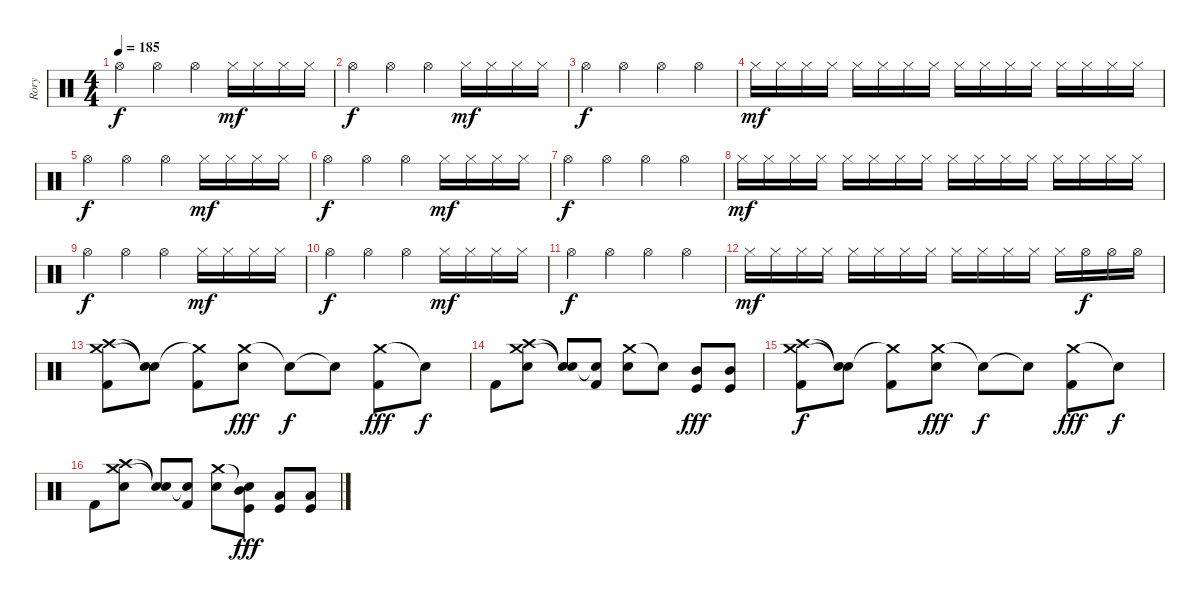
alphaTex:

\track ("Rory" "Rory") {instrument percussion}
\staff {score}
\articulation defaults
\ts (4 4)
\tempo 185
\clef neutral
\ks c "Hi-Hat (open)".4{dy f} "Hi-Hat (open)".4 "Hi-Hat (open)".4 "Hi-Hat (closed)".16{dy mf} "Hi-Hat (closed)".16 "Hi-Hat (closed)".16 "Hi-Hat (closed)".16
|
"Hi-Hat (open)".4{dy f} "Hi-Hat (open)".4 "Hi-Hat (open)".4 "Hi-Hat (closed)".16{dy mf} "Hi-Hat (closed)".16 "Hi-Hat (closed)".16 "Hi-Hat (closed)".16 |
"Hi-Hat (open)".4{dy f} "Hi-Hat (open)".4 "Hi-Hat (open)".4 "Hi-Hat (open)".4 |
"Hi-Hat (closed)".16{dy mf} "Hi-Hat (closed)".16 "Hi-Hat (closed)".16 "Hi-Hat (closed)".16 "Hi-Hat (closed)".16 "Hi-Hat (closed)".16 "Hi-Hat (closed)".16 "Hi-Hat (closed)".16 "Hi-Hat (closed)".16 "Hi-Hat (closed)".16 "Hi-Hat (closed)".16 "Hi-Hat (closed)".16 "Hi-Hat (closed)".16 "Hi-Hat (closed)".16 "Hi-Hat (closed)".16 "Hi-Hat (closed)".16 |
"Hi-Hat (open)".4{dy f} "Hi-Hat (open)".4 "Hi-Hat (open)".4 "Hi-Hat (closed)".16{dy mf} "Hi-Hat (closed)".16 "Hi-Hat (closed)".16 "Hi-Hat (closed)".16 |
"Hi-Hat (open)".4{dy f} "Hi-Hat (open)".4 "Hi-Hat (open)".4 "Hi-Hat (closed)".16{dy mf} "Hi-Hat (closed)".16 "Hi-Hat (closed)".16 "Hi-Hat (closed)".16 |
"Hi-Hat (open)".4{dy f} "Hi-Hat (open)".4 "Hi-Hat (open)".4 "Hi-Hat (open)".4 |
"Hi-Hat (closed)".16{dy mf} "Hi-Hat (closed)".16 "Hi-Hat (closed)".16 "Hi-Hat (closed)".16 "Hi-Hat (closed)".16 "Hi-Hat (closed)".16 "Hi-Hat (closed)".16 "Hi-Hat (closed)".16 "Hi-Hat (closed)".16 "Hi-Hat (closed)".16 "Hi-Hat (closed)".16 "Hi-Hat (closed)".16 "Hi-Hat (closed)".16 "Hi-Hat (closed)".16 "Hi-Hat (closed)".16 "Hi-Hat (closed)".16 |
"Hi-Hat (open)".4{dy f} "Hi-Hat (open)".4 "Hi-Hat (open)".4 "Hi-Hat (closed)".16{dy mf} "Hi-Hat (closed)".16 "Hi-Hat (closed)".16 "Hi-Hat (closed)".16 |
"Hi-Hat (open)".4{dy f} "Hi-Hat (open)".4 "Hi-Hat (open)".4 "Hi-Hat (closed)".16{dy mf} "Hi-Hat (closed)".16 "Hi-Hat (closed)".16 "Hi-Hat (closed)".16 |
"Hi-Hat (open)".4{dy f} "Hi-Hat (open)".4 "Hi-Hat (open)".4 "Hi-Hat (open)".4 |
"Hi-Hat (closed)".16{dy mf} "Hi-Hat (closed)".16 "Hi-Hat (closed)".16 "Hi-Hat (closed)".16 "Hi-Hat (closed)".16 "Hi-Hat (closed)".16 "Hi-Hat (closed)".16 "Hi-Hat (closed)".16 "Hi-Hat (closed)".16 "Hi-Hat (closed)".16 "Hi-Hat (closed)".16 "Hi-Hat (closed)".16 "Hi-Hat (closed)".16 "Hi-Hat (open)".16{dy f} "Hi-Hat (open)".16 "Hi-Hat (open)".16 |
("Crash medium (hit)" "Crash high (hit)" "Kick (hit) 2").8 ("Snare (hit)"{t} "Snare (hit)"{t}).8 ("Crash medium (hit)"{t} "Kick (hit) 2").8 ("Crash medium (hit)" "Electric Snare (hit)").8{dy fff} "Snare (hit)"{t}.8{dy f} "Snare (hit)"{t}.8 ("Crash medium (hit)" "Kick (hit) 2").8{dy fff} "Snare (hit)"{t}.8{dy f} |
"Kick (hit) 2".8 ("Crash medium (hit)" "Crash high (hit)" "Electric Snare (hit)").8 ("Snare (hit)"{t} "Snare (hit)"{t}).8 ("Snare (hit)"{t} "Kick (hit) 2").8 ("Crash medium (hit)" "Electric Snare (hit)").8 "Snare (hit)"{t}.8 ("Mid Tom (hit)" "Kick (hit)").8{dy fff} ("Mid Tom (hit)" "Kick (hit)").8 |
("Crash medium (hit)" "Crash high (hit)" "Kick (hit) 2").8{dy f} ("Snare (hit)"{t} "Snare (hit)"{t}).8 ("Crash medium (hit)"{t} "Kick (hit) 2").8 ("Crash medium (hit)" "Electric Snare (hit)").8{dy fff} "Snare (hit)"{t}.8{dy f} "Snare (hit)"{t}.8 ("Crash medium (hit)" "Kick (hit) 2").8{dy fff} "Snare (hit)"{t}.8{dy f} |
"Kick (hit) 2".8 ("Crash medium (hit)" "Crash high (hit)" "Electric Snare (hit)").8 ("Snare (hit)"{t} "Snare (hit)"{t}).8 ("Snare (hit)"{t} "Kick (hit) 2").8 ("Crash medium (hit)" "Electric Snare (hit)").8 ("Snare (hit)"{t} "Mid Tom (hit)" "Kick (hit)").8{dy fff} ("Low Tom (hit)" "Kick (hit)").8 ("Low Tom (hit)" "Kick (hit)").8
